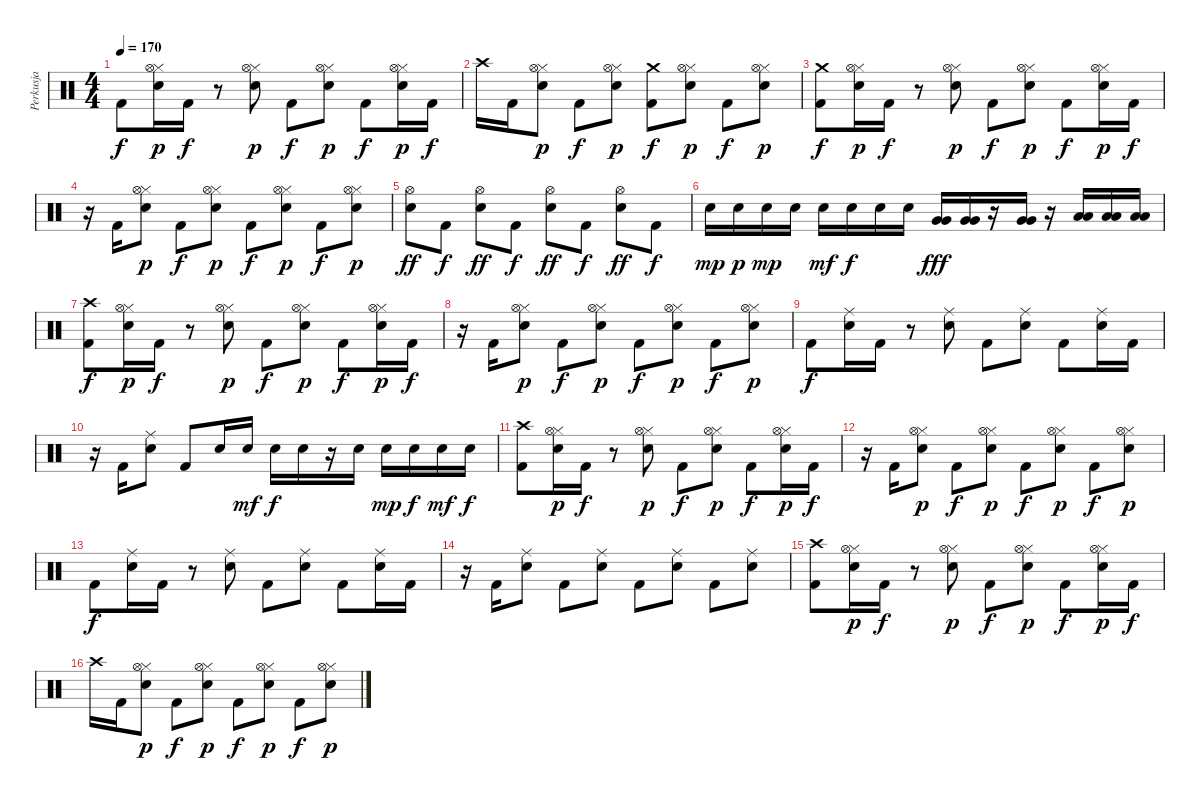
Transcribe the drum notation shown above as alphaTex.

\track ("Perkusja" "Perkusja") {instrument percussion}
\staff {score}
\articulation defaults
\ts (4 4)
\tempo 170
\clef neutral
\ks c "Kick (hit) 2".8{dy f}
("Electric Snare (hit)" "Hi-Hat (closed)" "Hi-Hat (open)").16{dy p} "Kick (hit) 2".16{dy f} r.8 ("Electric Snare (hit)" "Hi-Hat (closed)" "Hi-Hat (open)").8{dy p} "Kick (hit) 2".8{dy f} ("Electric Snare (hit)" "Hi-Hat (closed)" "Hi-Hat (open)").8{dy p} "Kick (hit) 2".8{dy f} ("Electric Snare (hit)" "Hi-Hat (closed)" "Hi-Hat (open)").16{dy p} "Kick (hit) 2".16{dy f} |
"Crash high (hit)".16 "Kick (hit) 2".16 ("Electric Snare (hit)" "Hi-Hat (closed)" "Hi-Hat (open)").8{dy p} "Kick (hit) 2".8{dy f} ("Electric Snare (hit)" "Hi-Hat (closed)" "Hi-Hat (open)").8{dy p} ("Kick (hit) 2" "Crash medium (hit)").8{dy f} ("Electric Snare (hit)" "Hi-Hat (closed)" "Hi-Hat (open)").8{dy p} "Kick (hit) 2".8{dy f} ("Electric Snare (hit)" "Hi-Hat (closed)" "Hi-Hat (open)").8{dy p} |
("Kick (hit) 2" "Crash medium (hit)").8{dy f} ("Electric Snare (hit)" "Hi-Hat (closed)" "Hi-Hat (open)").16{dy p} "Kick (hit) 2".16{dy f} r.8 ("Electric Snare (hit)" "Hi-Hat (closed)" "Hi-Hat (open)").8{dy p} "Kick (hit) 2".8{dy f} ("Electric Snare (hit)" "Hi-Hat (closed)" "Hi-Hat (open)").8{dy p} "Kick (hit) 2".8{dy f} ("Electric Snare (hit)" "Hi-Hat (closed)" "Hi-Hat (open)").16{dy p} "Kick (hit) 2".16{dy f} |
r.16 "Kick (hit) 2".16 ("Electric Snare (hit)" "Hi-Hat (closed)" "Hi-Hat (open)").8{dy p} "Kick (hit) 2".8{dy f} ("Electric Snare (hit)" "Hi-Hat (closed)" "Hi-Hat (open)").8{dy p} "Kick (hit) 2".8{dy f} ("Electric Snare (hit)" "Hi-Hat (closed)" "Hi-Hat (open)").8{dy p} "Kick (hit) 2".8{dy f} ("Electric Snare (hit)" "Hi-Hat (closed)" "Hi-Hat (open)").8{dy p} |
("Electric Snare (hit)" "Hi-Hat (open)").8{dy ff} "Kick (hit) 2".8{dy f} ("Electric Snare (hit)" "Hi-Hat (open)").8{dy ff} "Kick (hit) 2".8{dy f} ("Electric Snare (hit)" "Hi-Hat (open)").8{dy ff} "Kick (hit) 2".8{dy f} ("Electric Snare (hit)" "Hi-Hat (open)").8{dy ff} "Kick (hit) 2".8{dy f} |
"Electric Snare (hit)".16{dy mp} "Electric Snare (hit)".16{dy p} "Electric Snare (hit)".16{dy mp} "Electric Snare (hit)".16 "Electric Snare (hit)".16{dy mf} "Electric Snare (hit)".16{dy f} "Electric Snare (hit)".16 "Electric Snare (hit)".16 ("Very Low Tom (hit)" "Very Low Tom (hit)").16{dy fff} ("Very Low Tom (hit)" "Very Low Tom (hit)").16 r.16 ("Very Low Tom (hit)" "Very Low Tom (hit)").16 r.16 ("Low Floor Tom (hit)" "Low Floor Tom (hit)").16 ("Low Floor Tom (hit)" "Low Floor Tom (hit)").16 ("Low Floor Tom (hit)" "Low Floor Tom (hit)").16 |
("Kick (hit) 2" "Crash high (hit)").8{dy f} ("Electric Snare (hit)" "Hi-Hat (closed)" "Hi-Hat (open)").16{dy p} "Kick (hit) 2".16{dy f} r.8 ("Electric Snare (hit)" "Hi-Hat (closed)" "Hi-Hat (open)").8{dy p} "Kick (hit) 2".8{dy f} ("Electric Snare (hit)" "Hi-Hat (closed)" "Hi-Hat (open)").8{dy p} "Kick (hit) 2".8{dy f} ("Electric Snare (hit)" "Hi-Hat (closed)" "Hi-Hat (open)").16{dy p} "Kick (hit) 2".16{dy f} |
r.16 "Kick (hit) 2".16 ("Electric Snare (hit)" "Hi-Hat (closed)" "Hi-Hat (open)").8{dy p} "Kick (hit) 2".8{dy f} ("Electric Snare (hit)" "Hi-Hat (closed)" "Hi-Hat (open)").8{dy p} "Kick (hit) 2".8{dy f} ("Electric Snare (hit)" "Hi-Hat (closed)" "Hi-Hat (open)").8{dy p} "Kick (hit) 2".8{dy f} ("Electric Snare (hit)" "Hi-Hat (closed)" "Hi-Hat (open)").8{dy p} |
"Kick (hit) 2".8{dy f} ("Electric Snare (hit)" "Ride (middle)").16 "Kick (hit) 2".16 r.8 ("Electric Snare (hit)" "Ride (middle)").8 "Kick (hit) 2".8 ("Electric Snare (hit)" "Ride (middle)").8 "Kick (hit) 2".8 ("Electric Snare (hit)" "Ride (middle)").16 "Kick (hit) 2".16 |
r.16 "Kick (hit) 2".16 ("Electric Snare (hit)" "Ride (middle)").8 "Kick (hit) 2".8 "Electric Snare (hit)".16 "Electric Snare (hit)".16{dy mf} "Electric Snare (hit)".16{dy f} "Electric Snare (hit)".16 r.16 "Electric Snare (hit)".16 "Electric Snare (hit)".16{dy mp} "Electric Snare (hit)".16{dy f} "Electric Snare (hit)".16{dy mf} "Electric Snare (hit)".16{dy f} |
("Kick (hit) 2" "Crash high (hit)").8 ("Electric Snare (hit)" "Hi-Hat (closed)" "Hi-Hat (open)").16{dy p} "Kick (hit) 2".16{dy f} r.8 ("Electric Snare (hit)" "Hi-Hat (closed)" "Hi-Hat (open)").8{dy p} "Kick (hit) 2".8{dy f} ("Electric Snare (hit)" "Hi-Hat (closed)" "Hi-Hat (open)").8{dy p} "Kick (hit) 2".8{dy f} ("Electric Snare (hit)" "Hi-Hat (closed)" "Hi-Hat (open)").16{dy p} "Kick (hit) 2".16{dy f} |
r.16 "Kick (hit) 2".16 ("Electric Snare (hit)" "Hi-Hat (closed)" "Hi-Hat (open)").8{dy p} "Kick (hit) 2".8{dy f} ("Electric Snare (hit)" "Hi-Hat (closed)" "Hi-Hat (open)").8{dy p} "Kick (hit) 2".8{dy f} ("Electric Snare (hit)" "Hi-Hat (closed)" "Hi-Hat (open)").8{dy p} "Kick (hit) 2".8{dy f} ("Electric Snare (hit)" "Hi-Hat (closed)" "Hi-Hat (open)").8{dy p} |
"Kick (hit) 2".8{dy f} ("Electric Snare (hit)" "Ride (middle)").16 "Kick (hit) 2".16 r.8 ("Electric Snare (hit)" "Ride (middle)").8 "Kick (hit) 2".8 ("Electric Snare (hit)" "Ride (middle)").8 "Kick (hit) 2".8 ("Electric Snare (hit)" "Ride (middle)").16 "Kick (hit) 2".16 |
r.16 "Kick (hit) 2".16 ("Electric Snare (hit)" "Ride (middle)").8 "Kick (hit) 2".8 ("Electric Snare (hit)" "Ride (middle)").8 "Kick (hit) 2".8 ("Electric Snare (hit)" "Ride (middle)").8 "Kick (hit) 2".8 ("Electric Snare (hit)" "Ride (middle)").8 |
("Kick (hit) 2" "Crash high (hit)").8 ("Electric Snare (hit)" "Hi-Hat (closed)" "Hi-Hat (open)").16{dy p} "Kick (hit) 2".16{dy f} r.8 ("Electric Snare (hit)" "Hi-Hat (closed)" "Hi-Hat (open)").8{dy p} "Kick (hit) 2".8{dy f} ("Electric Snare (hit)" "Hi-Hat (closed)" "Hi-Hat (open)").8{dy p} "Kick (hit) 2".8{dy f} ("Electric Snare (hit)" "Hi-Hat (closed)" "Hi-Hat (open)").16{dy p} "Kick (hit) 2".16{dy f} |
"Crash high (hit)".16 "Kick (hit) 2".16 ("Electric Snare (hit)" "Hi-Hat (closed)" "Hi-Hat (open)").8{dy p} "Kick (hit) 2".8{dy f} ("Electric Snare (hit)" "Hi-Hat (closed)" "Hi-Hat (open)").8{dy p} "Kick (hit) 2".8{dy f} ("Electric Snare (hit)" "Hi-Hat (closed)" "Hi-Hat (open)").8{dy p} "Kick (hit) 2".8{dy f} ("Electric Snare (hit)" "Hi-Hat (closed)" "Hi-Hat (open)").8{dy p}
